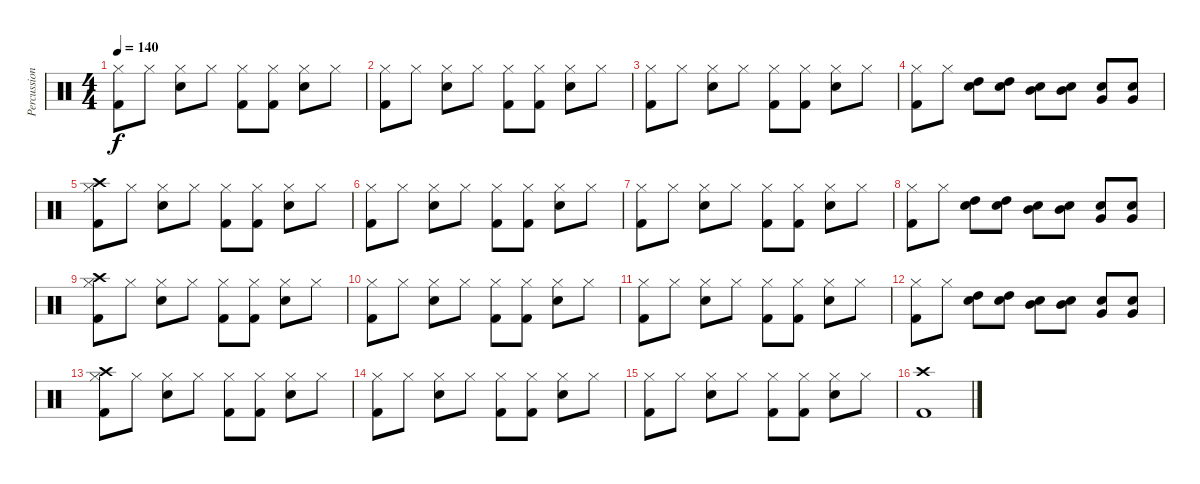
\track ("Percussion" "Percussion") {instrument percussion}
\staff {score}
\articulation defaults
\ts (4 4)
\tempo 140
\clef neutral
\ks c
("Kick (hit) 2" "Hi-Hat (closed)").8{dy f} "Hi-Hat (closed)".8 ("Electric Snare (hit)" "Hi-Hat (closed)").8 "Hi-Hat (closed)".8 ("Kick (hit) 2" "Hi-Hat (closed)").8 ("Kick (hit) 2" "Hi-Hat (closed)").8 ("Electric Snare (hit)" "Hi-Hat (closed)").8 "Hi-Hat (closed)".8 |
("Kick (hit) 2" "Hi-Hat (closed)").8 "Hi-Hat (closed)".8 ("Electric Snare (hit)" "Hi-Hat (closed)").8 "Hi-Hat (closed)".8 ("Kick (hit) 2" "Hi-Hat (closed)").8 ("Kick (hit) 2" "Hi-Hat (closed)").8 ("Electric Snare (hit)" "Hi-Hat (closed)").8 "Hi-Hat (closed)".8 |
("Kick (hit) 2" "Hi-Hat (closed)").8 "Hi-Hat (closed)".8 ("Electric Snare (hit)" "Hi-Hat (closed)").8 "Hi-Hat (closed)".8 ("Kick (hit) 2" "Hi-Hat (closed)").8 ("Kick (hit) 2" "Hi-Hat (closed)").8 ("Electric Snare (hit)" "Hi-Hat (closed)").8 "Hi-Hat (closed)".8 |
("Kick (hit) 2" "Hi-Hat (closed)").8 "Hi-Hat (closed)".8 ("Electric Snare (hit)" "High Tom (hit)").8 ("Electric Snare (hit)" "High Tom (hit)").8 ("Electric Snare (hit)" "Mid Tom (hit)").8 ("Electric Snare (hit)" "Mid Tom (hit)").8 ("Electric Snare (hit)" "Very Low Tom (hit)").8 ("Electric Snare (hit)" "Very Low Tom (hit)").8 |
("Kick (hit) 2" "Hi-Hat (closed)" "Crash high (hit)").8 "Hi-Hat (closed)".8 ("Electric Snare (hit)" "Hi-Hat (closed)").8 "Hi-Hat (closed)".8 ("Kick (hit) 2" "Hi-Hat (closed)").8 ("Kick (hit) 2" "Hi-Hat (closed)").8 ("Electric Snare (hit)" "Hi-Hat (closed)").8 "Hi-Hat (closed)".8 |
("Kick (hit) 2" "Hi-Hat (closed)").8 "Hi-Hat (closed)".8 ("Electric Snare (hit)" "Hi-Hat (closed)").8 "Hi-Hat (closed)".8 ("Kick (hit) 2" "Hi-Hat (closed)").8 ("Kick (hit) 2" "Hi-Hat (closed)").8 ("Electric Snare (hit)" "Hi-Hat (closed)").8 "Hi-Hat (closed)".8 |
("Kick (hit) 2" "Hi-Hat (closed)").8 "Hi-Hat (closed)".8 ("Electric Snare (hit)" "Hi-Hat (closed)").8 "Hi-Hat (closed)".8 ("Kick (hit) 2" "Hi-Hat (closed)").8 ("Kick (hit) 2" "Hi-Hat (closed)").8 ("Electric Snare (hit)" "Hi-Hat (closed)").8 "Hi-Hat (closed)".8 |
("Kick (hit) 2" "Hi-Hat (closed)").8 "Hi-Hat (closed)".8 ("Electric Snare (hit)" "High Tom (hit)").8 ("Electric Snare (hit)" "High Tom (hit)").8 ("Electric Snare (hit)" "Mid Tom (hit)").8 ("Electric Snare (hit)" "Mid Tom (hit)").8 ("Electric Snare (hit)" "Very Low Tom (hit)").8 ("Electric Snare (hit)" "Very Low Tom (hit)").8 |
("Kick (hit) 2" "Hi-Hat (closed)" "Crash high (hit)").8 "Hi-Hat (closed)".8 ("Electric Snare (hit)" "Hi-Hat (closed)").8 "Hi-Hat (closed)".8 ("Kick (hit) 2" "Hi-Hat (closed)").8 ("Kick (hit) 2" "Hi-Hat (closed)").8 ("Electric Snare (hit)" "Hi-Hat (closed)").8 "Hi-Hat (closed)".8 |
("Kick (hit) 2" "Hi-Hat (closed)").8 "Hi-Hat (closed)".8 ("Electric Snare (hit)" "Hi-Hat (closed)").8 "Hi-Hat (closed)".8 ("Kick (hit) 2" "Hi-Hat (closed)").8 ("Kick (hit) 2" "Hi-Hat (closed)").8 ("Electric Snare (hit)" "Hi-Hat (closed)").8 "Hi-Hat (closed)".8 |
("Kick (hit) 2" "Hi-Hat (closed)").8 "Hi-Hat (closed)".8 ("Electric Snare (hit)" "Hi-Hat (closed)").8 "Hi-Hat (closed)".8 ("Kick (hit) 2" "Hi-Hat (closed)").8 ("Kick (hit) 2" "Hi-Hat (closed)").8 ("Electric Snare (hit)" "Hi-Hat (closed)").8 "Hi-Hat (closed)".8 |
("Kick (hit) 2" "Hi-Hat (closed)").8 "Hi-Hat (closed)".8 ("Electric Snare (hit)" "High Tom (hit)").8 ("Electric Snare (hit)" "High Tom (hit)").8 ("Electric Snare (hit)" "Mid Tom (hit)").8 ("Electric Snare (hit)" "Mid Tom (hit)").8 ("Electric Snare (hit)" "Very Low Tom (hit)").8 ("Electric Snare (hit)" "Very Low Tom (hit)").8 |
("Kick (hit) 2" "Hi-Hat (closed)" "Crash high (hit)").8 "Hi-Hat (closed)".8 ("Electric Snare (hit)" "Hi-Hat (closed)").8 "Hi-Hat (closed)".8 ("Kick (hit) 2" "Hi-Hat (closed)").8 ("Kick (hit) 2" "Hi-Hat (closed)").8 ("Electric Snare (hit)" "Hi-Hat (closed)").8 "Hi-Hat (closed)".8 |
("Kick (hit) 2" "Hi-Hat (closed)").8 "Hi-Hat (closed)".8 ("Electric Snare (hit)" "Hi-Hat (closed)").8 "Hi-Hat (closed)".8 ("Kick (hit) 2" "Hi-Hat (closed)").8 ("Kick (hit) 2" "Hi-Hat (closed)").8 ("Electric Snare (hit)" "Hi-Hat (closed)").8 "Hi-Hat (closed)".8 |
("Kick (hit) 2" "Hi-Hat (closed)").8 "Hi-Hat (closed)".8 ("Electric Snare (hit)" "Hi-Hat (closed)").8 "Hi-Hat (closed)".8 ("Kick (hit) 2" "Hi-Hat (closed)").8 ("Kick (hit) 2" "Hi-Hat (closed)").8 ("Electric Snare (hit)" "Hi-Hat (closed)").8 "Hi-Hat (closed)".8 |
("Kick (hit) 2" "Crash high (hit)").1
